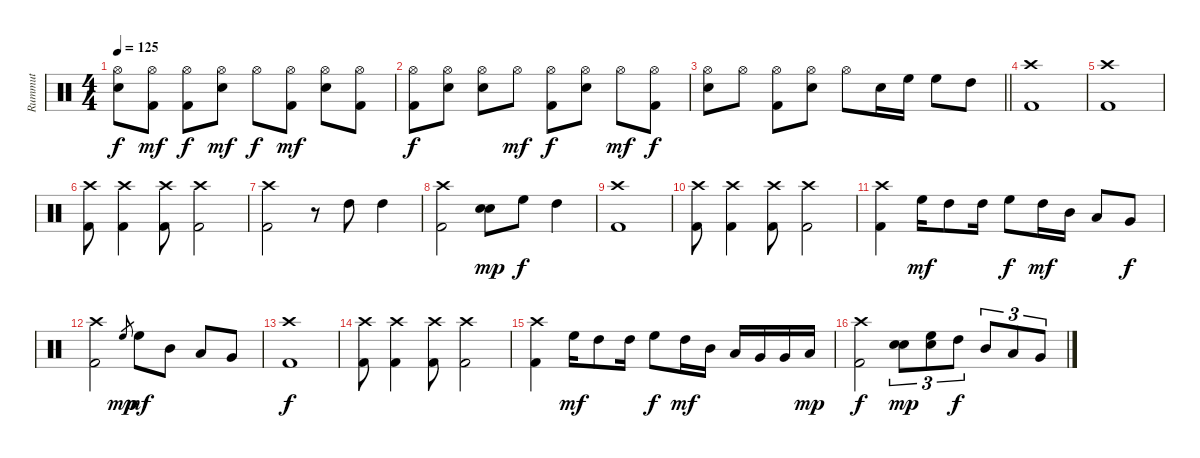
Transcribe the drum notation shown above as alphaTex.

\track ("Rummut" "Rummut") {instrument percussion}
\staff {score}
\articulation defaults
\ts (4 4)
\tempo 125
\clef neutral
\ks c
("Hi-Hat (open)" "Electric Snare (hit)").8{dy f} ("Hi-Hat (open)" "Kick (hit) 2").8{dy mf} ("Hi-Hat (open)" "Kick (hit) 2").8{dy f} ("Hi-Hat (open)" "Electric Snare (hit)").8{dy mf} "Hi-Hat (open)".8{dy f} ("Hi-Hat (open)" "Kick (hit) 2").8{dy mf} ("Hi-Hat (open)" "Electric Snare (hit)").8 ("Hi-Hat (open)" "Kick (hit) 2").8 |
("Hi-Hat (open)" "Kick (hit) 2").8{dy f} ("Hi-Hat (open)" "Electric Snare (hit)").8 ("Hi-Hat (open)" "Electric Snare (hit)").8 "Hi-Hat (open)".8{dy mf} ("Hi-Hat (open)" "Kick (hit) 2").8{dy f} ("Hi-Hat (open)" "Electric Snare (hit)").8 "Hi-Hat (open)".8{dy mf} ("Hi-Hat (open)" "Kick (hit) 2").8{dy f} |
\barLineRight lightlight
("Hi-Hat (open)" "Electric Snare (hit)").8 "Hi-Hat (open)".8 ("Hi-Hat (open)" "Kick (hit) 2").8 ("Hi-Hat (open)" "Electric Snare (hit)").8 "Hi-Hat (open)".8 "Electric Snare (hit)".16 "High Floor Tom (hit)".16 "High Floor Tom (hit)".8 "High Tom (hit)".8 |
\section ("" "")
("Crash high (hit)" "Kick (hit) 2").1 |
("Crash high (hit)" "Kick (hit) 2").1 |
("Crash high (hit)" "Kick (hit) 2").8 ("Crash high (hit)" "Kick (hit) 2").4 ("Crash high (hit)" "Kick (hit) 2").8 ("Crash high (hit)" "Kick (hit) 2").2 |
("Crash high (hit)" "Kick (hit) 2").2 r.8 "High Tom (hit)".8 "High Tom (hit)".4 |
("Crash high (hit)" "Kick (hit) 2").2 ("Electric Snare (hit)" "Snare (hit) 2").8{dy mp} "High Floor Tom (hit)".8{dy f} "High Tom (hit)".4 |
("Crash high (hit)" "Kick (hit) 2").1 |
("Crash high (hit)" "Kick (hit) 2").8 ("Crash high (hit)" "Kick (hit) 2").4 ("Crash high (hit)" "Kick (hit) 2").8 ("Crash high (hit)" "Kick (hit) 2").2 |
("Crash high (hit)" "Kick (hit) 2").4 "High Floor Tom (hit)".16{dy mf} "High Tom (hit)".8 "High Tom (hit)".16 "High Floor Tom (hit)".8{dy f} "High Tom (hit)".16{dy mf} "Mid Tom (hit)".16 "Low Tom (hit)".8 "Very Low Tom (hit)".8{dy f} |
("Crash high (hit)" "Kick (hit) 2").2 "High Floor Tom (hit)".8{gr dy mp} "High Floor Tom (hit)".8{dy mf} "Mid Tom (hit)".8 "Low Tom (hit)".8 "Very Low Tom (hit)".8 |
("Crash high (hit)" "Kick (hit) 2").1{dy f} |
("Crash high (hit)" "Kick (hit) 2").8 ("Crash high (hit)" "Kick (hit) 2").4 ("Crash high (hit)" "Kick (hit) 2").8 ("Crash high (hit)" "Kick (hit) 2").2 |
("Crash high (hit)" "Kick (hit) 2").4 "High Floor Tom (hit)".16{dy mf} "High Tom (hit)".8 "High Tom (hit)".16 "High Floor Tom (hit)".8{dy f} "High Tom (hit)".16{dy mf} "Mid Tom (hit)".16 "Low Tom (hit)".16 "Very Low Tom (hit)".16 "Very Low Tom (hit)".16 "Low Floor Tom (hit)".16{dy mp} |
("Crash high (hit)" "Kick (hit) 2").2{dy f} ("Electric Snare (hit)" "Snare (hit) 2").8{tu (3 2) dy mp} ("High Floor Tom (hit)" "Electric Snare (hit)").8{tu (3 2)} "High Tom (hit)".8{tu (3 2) dy f} "Mid Tom (hit)".8{tu (3 2)} "Low Tom (hit)".8{tu (3 2)} "Very Low Tom (hit)".8{tu (3 2)}
